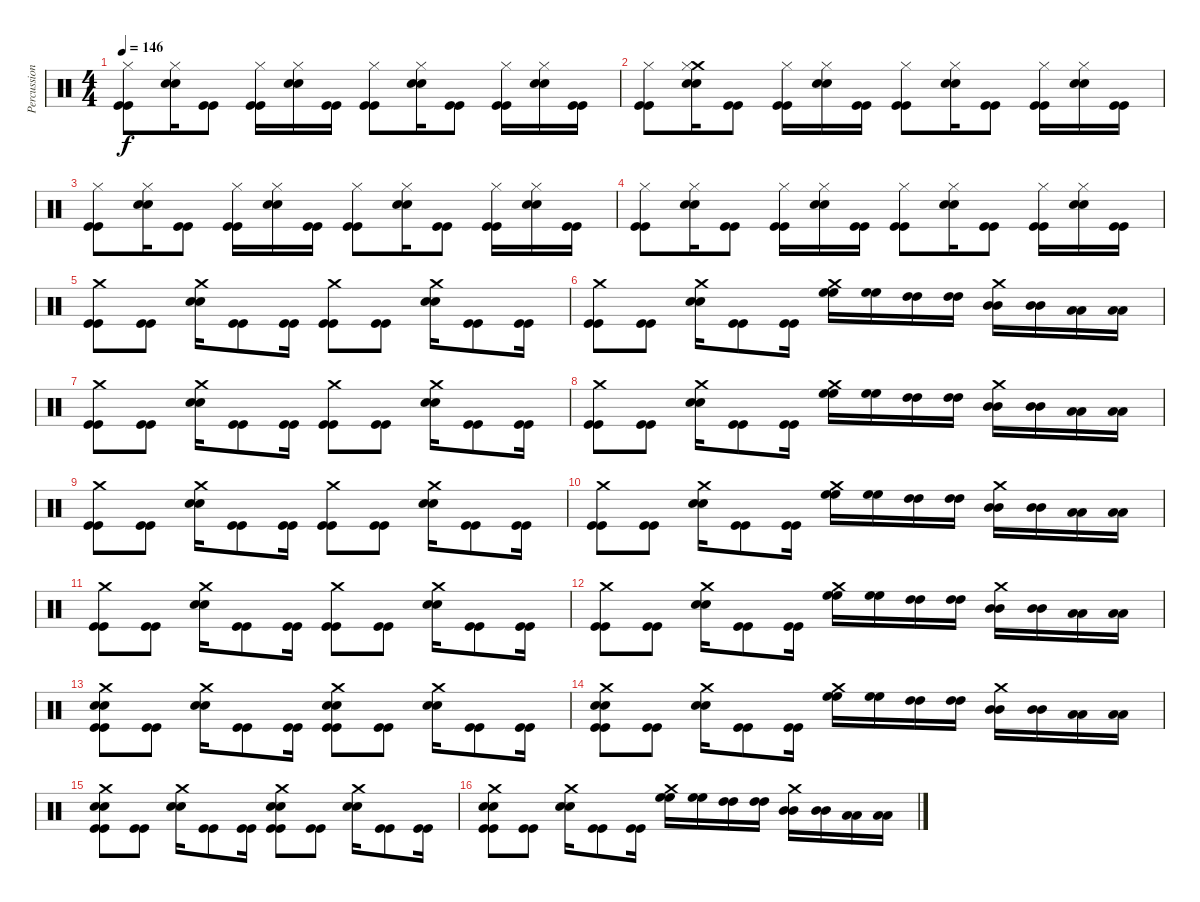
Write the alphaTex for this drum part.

\track ("Percussion" "Percussion") {instrument percussion}
\staff {score}
\articulation defaults
\ts (4 4)
\tempo 146
\clef neutral
\ks c
("Hi-Hat (closed)" "Kick (hit)" "Kick (hit)").8{dy f} ("Snare (hit) 2" "Snare (hit) 2" "Hi-Hat (closed)").16 ("Kick (hit)" "Kick (hit)").8 ("Hi-Hat (closed)" "Kick (hit)" "Kick (hit)").16 ("Snare (hit) 2" "Snare (hit) 2" "Hi-Hat (closed)").16 ("Kick (hit)" "Kick (hit)").16 ("Hi-Hat (closed)" "Kick (hit)" "Kick (hit)").8 ("Snare (hit) 2" "Snare (hit) 2" "Hi-Hat (closed)").16 ("Kick (hit)" "Kick (hit)").8 ("Hi-Hat (closed)" "Kick (hit)" "Kick (hit)").16 ("Snare (hit) 2" "Snare (hit) 2" "Hi-Hat (closed)").16 ("Kick (hit)" "Kick (hit)").16 |
("Hi-Hat (closed)" "Kick (hit)" "Kick (hit)").8 ("Crash medium (hit)" "Snare (hit) 2" "Snare (hit) 2" "Hi-Hat (closed)").16 ("Kick (hit)" "Kick (hit)").8 ("Hi-Hat (closed)" "Kick (hit)" "Kick (hit)").16 ("Snare (hit) 2" "Snare (hit) 2" "Hi-Hat (closed)").16 ("Kick (hit)" "Kick (hit)").16 ("Hi-Hat (closed)" "Kick (hit)" "Kick (hit)").8 ("Snare (hit) 2" "Snare (hit) 2" "Hi-Hat (closed)").16 ("Kick (hit)" "Kick (hit)").8 ("Hi-Hat (closed)" "Kick (hit)" "Kick (hit)").16 ("Snare (hit) 2" "Snare (hit) 2" "Hi-Hat (closed)").16 ("Kick (hit)" "Kick (hit)").16 |
("Hi-Hat (closed)" "Kick (hit)" "Kick (hit)").8 ("Snare (hit) 2" "Snare (hit) 2" "Hi-Hat (closed)").16 ("Kick (hit)" "Kick (hit)").8 ("Hi-Hat (closed)" "Kick (hit)" "Kick (hit)").16 ("Snare (hit) 2" "Snare (hit) 2" "Hi-Hat (closed)").16 ("Kick (hit)" "Kick (hit)").16 ("Hi-Hat (closed)" "Kick (hit)" "Kick (hit)").8 ("Snare (hit) 2" "Snare (hit) 2" "Hi-Hat (closed)").16 ("Kick (hit)" "Kick (hit)").8 ("Hi-Hat (closed)" "Kick (hit)" "Kick (hit)").16 ("Snare (hit) 2" "Snare (hit) 2" "Hi-Hat (closed)").16 ("Kick (hit)" "Kick (hit)").16 |
("Hi-Hat (closed)" "Kick (hit)" "Kick (hit)").8 ("Snare (hit) 2" "Snare (hit) 2" "Hi-Hat (closed)").16 ("Kick (hit)" "Kick (hit)").8 ("Hi-Hat (closed)" "Kick (hit)" "Kick (hit)").16 ("Snare (hit) 2" "Snare (hit) 2" "Hi-Hat (closed)").16 ("Kick (hit)" "Kick (hit)").16 ("Hi-Hat (closed)" "Kick (hit)" "Kick (hit)").8 ("Snare (hit) 2" "Snare (hit) 2" "Hi-Hat (closed)").16 ("Kick (hit)" "Kick (hit)").8 ("Hi-Hat (closed)" "Kick (hit)" "Kick (hit)").16 ("Snare (hit) 2" "Snare (hit) 2" "Hi-Hat (closed)").16 ("Kick (hit)" "Kick (hit)").16 |
("Crash medium (hit)" "Kick (hit)" "Kick (hit)").8 ("Kick (hit)" "Kick (hit)").8 ("Crash medium (hit)" "Snare (hit) 2" "Snare (hit) 2").16 ("Kick (hit)" "Kick (hit)").8 ("Kick (hit)" "Kick (hit)").16 ("Crash medium (hit)" "Kick (hit)" "Kick (hit)").8 ("Kick (hit)" "Kick (hit)").8 ("Crash medium (hit)" "Snare (hit) 2" "Snare (hit) 2").16 ("Kick (hit)" "Kick (hit)").8 ("Kick (hit)" "Kick (hit)").16 |
("Crash medium (hit)" "Kick (hit)" "Kick (hit)").8 ("Kick (hit)" "Kick (hit)").8 ("Crash medium (hit)" "Snare (hit) 2" "Snare (hit) 2").16 ("Kick (hit)" "Kick (hit)").8 ("Kick (hit)" "Kick (hit)").16 ("Crash medium (hit)" "High Floor Tom (hit)" "High Floor Tom (hit)").16 ("High Floor Tom (hit)" "High Floor Tom (hit)").16 ("High Tom (hit)" "High Tom (hit)").16 ("High Tom (hit)" "High Tom (hit)").16 ("Crash medium (hit)" "Mid Tom (hit)" "Mid Tom (hit)").16 ("Mid Tom (hit)" "Mid Tom (hit)").16 ("Low Tom (hit)" "Low Tom (hit)").16 ("Low Tom (hit)" "Low Tom (hit)").16 |
("Crash medium (hit)" "Kick (hit)" "Kick (hit)").8 ("Kick (hit)" "Kick (hit)").8 ("Crash medium (hit)" "Snare (hit) 2" "Snare (hit) 2").16 ("Kick (hit)" "Kick (hit)").8 ("Kick (hit)" "Kick (hit)").16 ("Crash medium (hit)" "Kick (hit)" "Kick (hit)").8 ("Kick (hit)" "Kick (hit)").8 ("Crash medium (hit)" "Snare (hit) 2" "Snare (hit) 2").16 ("Kick (hit)" "Kick (hit)").8 ("Kick (hit)" "Kick (hit)").16 |
("Crash medium (hit)" "Kick (hit)" "Kick (hit)").8 ("Kick (hit)" "Kick (hit)").8 ("Crash medium (hit)" "Snare (hit) 2" "Snare (hit) 2").16 ("Kick (hit)" "Kick (hit)").8 ("Kick (hit)" "Kick (hit)").16 ("Crash medium (hit)" "High Floor Tom (hit)" "High Floor Tom (hit)").16 ("High Floor Tom (hit)" "High Floor Tom (hit)").16 ("High Tom (hit)" "High Tom (hit)").16 ("High Tom (hit)" "High Tom (hit)").16 ("Crash medium (hit)" "Mid Tom (hit)" "Mid Tom (hit)").16 ("Mid Tom (hit)" "Mid Tom (hit)").16 ("Low Tom (hit)" "Low Tom (hit)").16 ("Low Tom (hit)" "Low Tom (hit)").16 |
("Crash medium (hit)" "Kick (hit)" "Kick (hit)").8 ("Kick (hit)" "Kick (hit)").8 ("Crash medium (hit)" "Snare (hit) 2" "Snare (hit) 2").16 ("Kick (hit)" "Kick (hit)").8 ("Kick (hit)" "Kick (hit)").16 ("Crash medium (hit)" "Kick (hit)" "Kick (hit)").8 ("Kick (hit)" "Kick (hit)").8 ("Crash medium (hit)" "Snare (hit) 2" "Snare (hit) 2").16 ("Kick (hit)" "Kick (hit)").8 ("Kick (hit)" "Kick (hit)").16 |
("Crash medium (hit)" "Kick (hit)" "Kick (hit)").8 ("Kick (hit)" "Kick (hit)").8 ("Crash medium (hit)" "Snare (hit) 2" "Snare (hit) 2").16 ("Kick (hit)" "Kick (hit)").8 ("Kick (hit)" "Kick (hit)").16 ("Crash medium (hit)" "High Floor Tom (hit)" "High Floor Tom (hit)").16 ("High Floor Tom (hit)" "High Floor Tom (hit)").16 ("High Tom (hit)" "High Tom (hit)").16 ("High Tom (hit)" "High Tom (hit)").16 ("Crash medium (hit)" "Mid Tom (hit)" "Mid Tom (hit)").16 ("Mid Tom (hit)" "Mid Tom (hit)").16 ("Low Tom (hit)" "Low Tom (hit)").16 ("Low Tom (hit)" "Low Tom (hit)").16 |
("Crash medium (hit)" "Kick (hit)" "Kick (hit)").8 ("Kick (hit)" "Kick (hit)").8 ("Crash medium (hit)" "Snare (hit) 2" "Snare (hit) 2").16 ("Kick (hit)" "Kick (hit)").8 ("Kick (hit)" "Kick (hit)").16 ("Crash medium (hit)" "Kick (hit)" "Kick (hit)").8 ("Kick (hit)" "Kick (hit)").8 ("Crash medium (hit)" "Snare (hit) 2" "Snare (hit) 2").16 ("Kick (hit)" "Kick (hit)").8 ("Kick (hit)" "Kick (hit)").16 |
("Crash medium (hit)" "Kick (hit)" "Kick (hit)").8 ("Kick (hit)" "Kick (hit)").8 ("Crash medium (hit)" "Snare (hit) 2" "Snare (hit) 2").16 ("Kick (hit)" "Kick (hit)").8 ("Kick (hit)" "Kick (hit)").16 ("Crash medium (hit)" "High Floor Tom (hit)" "High Floor Tom (hit)").16 ("High Floor Tom (hit)" "High Floor Tom (hit)").16 ("High Tom (hit)" "High Tom (hit)").16 ("High Tom (hit)" "High Tom (hit)").16 ("Crash medium (hit)" "Mid Tom (hit)" "Mid Tom (hit)").16 ("Mid Tom (hit)" "Mid Tom (hit)").16 ("Low Tom (hit)" "Low Tom (hit)").16 ("Low Tom (hit)" "Low Tom (hit)").16 |
("Crash medium (hit)" "Snare (hit) 2" "Snare (hit) 2" "Kick (hit)" "Kick (hit)").8 ("Kick (hit)" "Kick (hit)").8 ("Crash medium (hit)" "Snare (hit) 2" "Snare (hit) 2").16 ("Kick (hit)" "Kick (hit)").8 ("Kick (hit)" "Kick (hit)").16 ("Crash medium (hit)" "Snare (hit) 2" "Snare (hit) 2" "Kick (hit)" "Kick (hit)").8 ("Kick (hit)" "Kick (hit)").8 ("Crash medium (hit)" "Snare (hit) 2" "Snare (hit) 2").16 ("Kick (hit)" "Kick (hit)").8 ("Kick (hit)" "Kick (hit)").16 |
("Crash medium (hit)" "Snare (hit) 2" "Snare (hit) 2" "Kick (hit)" "Kick (hit)").8 ("Kick (hit)" "Kick (hit)").8 ("Crash medium (hit)" "Snare (hit) 2" "Snare (hit) 2").16 ("Kick (hit)" "Kick (hit)").8 ("Kick (hit)" "Kick (hit)").16 ("Crash medium (hit)" "High Floor Tom (hit)" "High Floor Tom (hit)").16 ("High Floor Tom (hit)" "High Floor Tom (hit)").16 ("High Tom (hit)" "High Tom (hit)").16 ("High Tom (hit)" "High Tom (hit)").16 ("Crash medium (hit)" "Mid Tom (hit)" "Mid Tom (hit)").16 ("Mid Tom (hit)" "Mid Tom (hit)").16 ("Low Tom (hit)" "Low Tom (hit)").16 ("Low Tom (hit)" "Low Tom (hit)").16 |
("Crash medium (hit)" "Snare (hit) 2" "Snare (hit) 2" "Kick (hit)" "Kick (hit)").8 ("Kick (hit)" "Kick (hit)").8 ("Crash medium (hit)" "Snare (hit) 2" "Snare (hit) 2").16 ("Kick (hit)" "Kick (hit)").8 ("Kick (hit)" "Kick (hit)").16 ("Crash medium (hit)" "Snare (hit) 2" "Snare (hit) 2" "Kick (hit)" "Kick (hit)").8 ("Kick (hit)" "Kick (hit)").8 ("Crash medium (hit)" "Snare (hit) 2" "Snare (hit) 2").16 ("Kick (hit)" "Kick (hit)").8 ("Kick (hit)" "Kick (hit)").16 |
("Crash medium (hit)" "Snare (hit) 2" "Snare (hit) 2" "Kick (hit)" "Kick (hit)").8 ("Kick (hit)" "Kick (hit)").8 ("Crash medium (hit)" "Snare (hit) 2" "Snare (hit) 2").16 ("Kick (hit)" "Kick (hit)").8 ("Kick (hit)" "Kick (hit)").16 ("Crash medium (hit)" "High Floor Tom (hit)" "High Floor Tom (hit)").16 ("High Floor Tom (hit)" "High Floor Tom (hit)").16 ("High Tom (hit)" "High Tom (hit)").16 ("High Tom (hit)" "High Tom (hit)").16 ("Crash medium (hit)" "Mid Tom (hit)" "Mid Tom (hit)").16 ("Mid Tom (hit)" "Mid Tom (hit)").16 ("Low Tom (hit)" "Low Tom (hit)").16 ("Low Tom (hit)" "Low Tom (hit)").16
